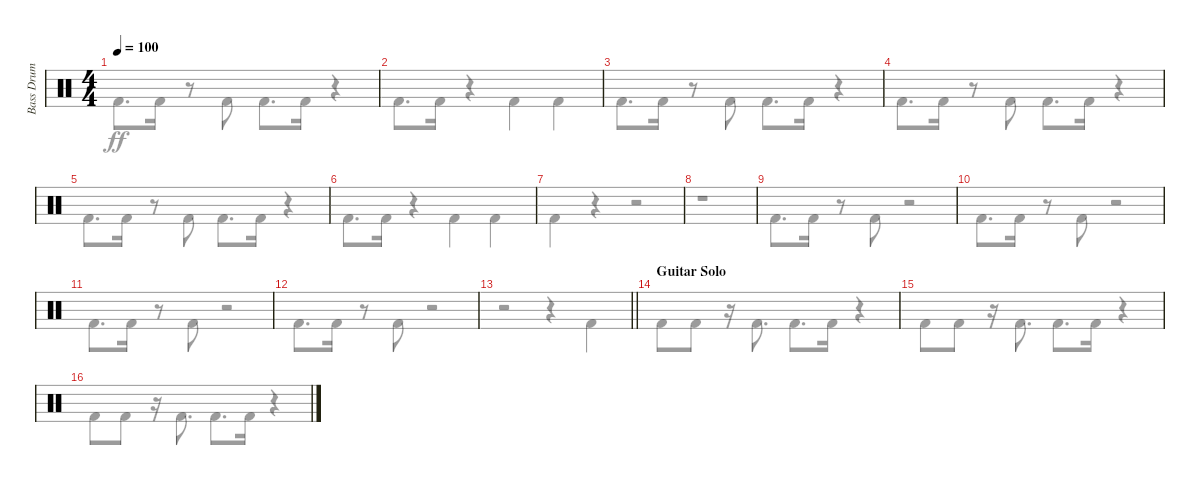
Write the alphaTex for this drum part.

\track ("Bass Drum" "Bass Drum") {instrument percussion}
\staff {score}
\articulation defaults
\voice
\ts (4 4)
\tempo 100
\clef neutral
\ks c
|
|
|
|
|
|
|
|
|
|
|
|
\barLineRight lightlight
|
\section ("" "Guitar Solo")
|
|
\voice
\clef neutral
\ks c "Kick (hit) 2".8{d dy ff} "Kick (hit) 2".16
r.8 "Kick (hit) 2".8 "Kick (hit) 2".8{d} "Kick (hit) 2".16 r.4 |
"Kick (hit) 2".8{d} "Kick (hit) 2".16 r.4 "Kick (hit) 2".4 "Kick (hit) 2".4 |
"Kick (hit) 2".8{d} "Kick (hit) 2".16 r.8 "Kick (hit) 2".8 "Kick (hit) 2".8{d} "Kick (hit) 2".16 r.4 |
"Kick (hit) 2".8{d} "Kick (hit) 2".16 r.8 "Kick (hit) 2".8 "Kick (hit) 2".8{d} "Kick (hit) 2".16 r.4 |
"Kick (hit) 2".8{d} "Kick (hit) 2".16 r.8 "Kick (hit) 2".8 "Kick (hit) 2".8{d} "Kick (hit) 2".16 r.4 |
"Kick (hit) 2".8{d} "Kick (hit) 2".16 r.4 "Kick (hit) 2".4 "Kick (hit) 2".4 |
"Kick (hit) 2".4 r.4 r.2 |
r.1 |
"Kick (hit) 2".8{d} "Kick (hit) 2".16 r.8 "Kick (hit) 2".8 r.2 |
"Kick (hit) 2".8{d} "Kick (hit) 2".16 r.8 "Kick (hit) 2".8 r.2 |
"Kick (hit) 2".8{d} "Kick (hit) 2".16 r.8 "Kick (hit) 2".8 r.2 |
"Kick (hit) 2".8{d} "Kick (hit) 2".16 r.8 "Kick (hit) 2".8 r.2 |
\barLineRight lightlight
r.2 r.4 "Kick (hit) 2".4 |
"Kick (hit) 2".8 "Kick (hit) 2".8 r.16 "Kick (hit) 2".8{d} "Kick (hit) 2".8{d} "Kick (hit) 2".16 r.4 |
"Kick (hit) 2".8 "Kick (hit) 2".8 r.16 "Kick (hit) 2".8{d} "Kick (hit) 2".8{d} "Kick (hit) 2".16 r.4 |
"Kick (hit) 2".8 "Kick (hit) 2".8 r.16 "Kick (hit) 2".8{d} "Kick (hit) 2".8{d} "Kick (hit) 2".16 r.4
